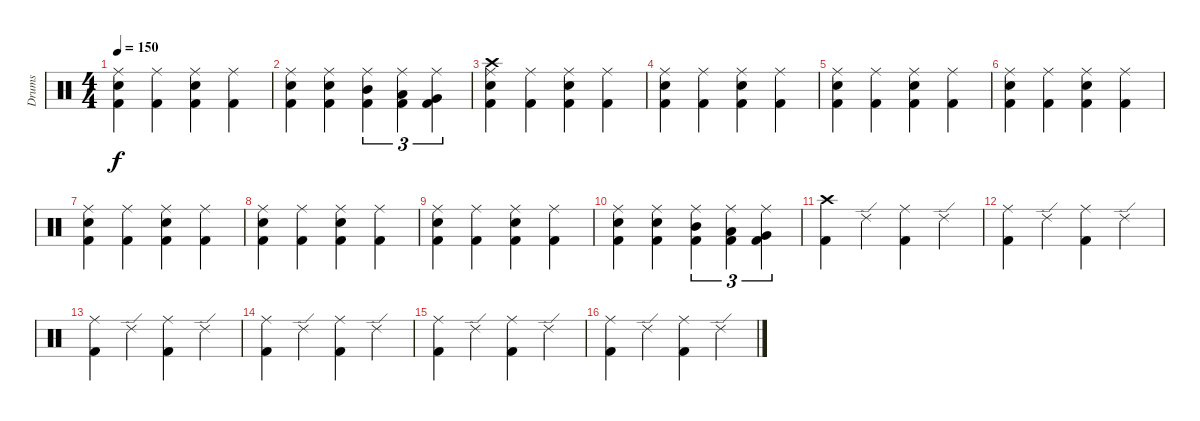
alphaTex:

\track ("Drums" "Drums") {instrument percussion}
\staff {score}
\articulation defaults
\ts (4 4)
\tempo 150
\clef neutral
\ks c
("Ride (middle)" "Electric Snare (hit)" "Kick (hit) 2").4{dy f} ("Ride (middle)" "Kick (hit) 2").4 ("Ride (middle)" "Electric Snare (hit)" "Kick (hit) 2").4 ("Ride (middle)" "Kick (hit) 2").4 |
("Ride (middle)" "Electric Snare (hit)" "Kick (hit) 2").4 ("Ride (middle)" "Snare (hit) 2" "Kick (hit) 2").4 ("Ride (middle)" "Mid Tom (hit)" "Kick (hit) 2").4{tu (3 2)} ("Ride (middle)" "Low Tom (hit)" "Kick (hit) 2").4{tu (3 2)} ("Ride (middle)" "Very Low Tom (hit)" "Kick (hit) 2").4{tu (3 2)} |
("Crash high (hit)" "Ride (middle)" "Electric Snare (hit)" "Kick (hit) 2").4 ("Ride (middle)" "Kick (hit) 2").4 ("Ride (middle)" "Electric Snare (hit)" "Kick (hit) 2").4 ("Ride (middle)" "Kick (hit) 2").4 |
("Ride (middle)" "Electric Snare (hit)" "Kick (hit) 2").4 ("Ride (middle)" "Kick (hit) 2").4 ("Ride (middle)" "Electric Snare (hit)" "Kick (hit) 2").4 ("Ride (middle)" "Kick (hit) 2").4 |
("Ride (middle)" "Electric Snare (hit)" "Kick (hit) 2").4 ("Ride (middle)" "Kick (hit) 2").4 ("Ride (middle)" "Electric Snare (hit)" "Kick (hit) 2").4 ("Ride (middle)" "Kick (hit) 2").4 |
("Ride (middle)" "Electric Snare (hit)" "Kick (hit) 2").4 ("Ride (middle)" "Kick (hit) 2").4 ("Ride (middle)" "Electric Snare (hit)" "Kick (hit) 2").4 ("Ride (middle)" "Kick (hit) 2").4 |
("Ride (middle)" "Electric Snare (hit)" "Kick (hit) 2").4 ("Ride (middle)" "Kick (hit) 2").4 ("Ride (middle)" "Electric Snare (hit)" "Kick (hit) 2").4 ("Ride (middle)" "Kick (hit) 2").4 |
("Ride (middle)" "Electric Snare (hit)" "Kick (hit) 2").4 ("Ride (middle)" "Kick (hit) 2").4 ("Ride (middle)" "Electric Snare (hit)" "Kick (hit) 2").4 ("Ride (middle)" "Kick (hit) 2").4 |
("Ride (middle)" "Electric Snare (hit)" "Kick (hit) 2").4 ("Ride (middle)" "Kick (hit) 2").4 ("Ride (middle)" "Electric Snare (hit)" "Kick (hit) 2").4 ("Ride (middle)" "Kick (hit) 2").4 |
("Ride (middle)" "Electric Snare (hit)" "Kick (hit) 2").4 ("Ride (middle)" "Snare (hit) 2" "Kick (hit) 2").4 ("Ride (middle)" "Mid Tom (hit)" "Kick (hit) 2").4{tu (3 2)} ("Ride (middle)" "Low Tom (hit)" "Kick (hit) 2").4{tu (3 2)} ("Ride (middle)" "Very Low Tom (hit)" "Kick (hit) 2").4{tu (3 2)} |
("Crash high (hit)" "Kick (hit) 2").4 "Ride (edge) 2".4 ("Ride (middle)" "Kick (hit) 2").4 "Ride (edge) 2".4 |
("Ride (middle)" "Kick (hit) 2").4 "Ride (edge) 2".4 ("Ride (middle)" "Kick (hit) 2").4 "Ride (edge) 2".4 |
("Ride (middle)" "Kick (hit) 2").4 "Ride (edge) 2".4 ("Ride (middle)" "Kick (hit) 2").4 "Ride (edge) 2".4 |
("Ride (middle)" "Kick (hit) 2").4 "Ride (edge) 2".4 ("Ride (middle)" "Kick (hit) 2").4 "Ride (edge) 2".4 |
("Ride (middle)" "Kick (hit) 2").4 "Ride (edge) 2".4 ("Ride (middle)" "Kick (hit) 2").4 "Ride (edge) 2".4 |
("Ride (middle)" "Kick (hit) 2").4 "Ride (edge) 2".4 ("Ride (middle)" "Kick (hit) 2").4 "Ride (edge) 2".4
